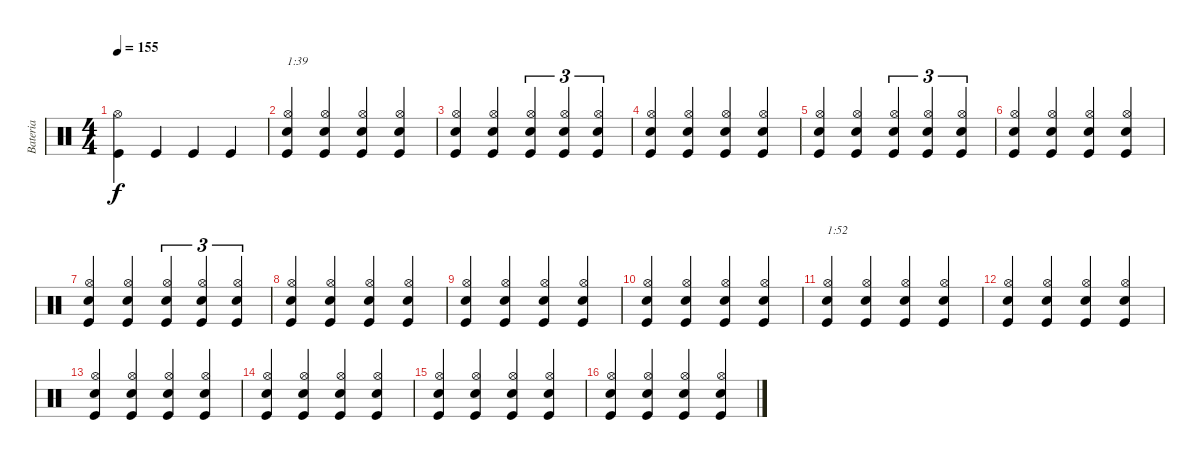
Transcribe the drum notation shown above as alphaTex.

\track ("Bateria" "Bateria") {instrument percussion}
\staff {score}
\articulation defaults
\ts (4 4)
\tempo 155
\clef neutral
\ks c
("Kick (hit)" "Hi-Hat (open)").4{dy f} "Kick (hit)".4 "Kick (hit)".4 "Kick (hit)".4 |
("Kick (hit)" "Snare (hit) 2" "Hi-Hat (open)").4{txt "1:39"} ("Kick (hit)" "Snare (hit) 2" "Hi-Hat (open)").4 ("Kick (hit)" "Snare (hit) 2" "Hi-Hat (open)").4 ("Kick (hit)" "Snare (hit) 2" "Hi-Hat (open)").4 |
("Kick (hit)" "Snare (hit) 2" "Hi-Hat (open)").4 ("Kick (hit)" "Snare (hit) 2" "Hi-Hat (open)").4 ("Kick (hit)" "Snare (hit) 2" "Hi-Hat (open)").4{tu (3 2)} ("Kick (hit)" "Snare (hit) 2" "Hi-Hat (open)").4{tu (3 2)} ("Kick (hit)" "Snare (hit) 2" "Hi-Hat (open)").4{tu (3 2)} |
("Kick (hit)" "Snare (hit) 2" "Hi-Hat (open)").4 ("Kick (hit)" "Snare (hit) 2" "Hi-Hat (open)").4 ("Kick (hit)" "Snare (hit) 2" "Hi-Hat (open)").4 ("Kick (hit)" "Snare (hit) 2" "Hi-Hat (open)").4 |
("Kick (hit)" "Snare (hit) 2" "Hi-Hat (open)").4 ("Kick (hit)" "Snare (hit) 2" "Hi-Hat (open)").4 ("Kick (hit)" "Snare (hit) 2" "Hi-Hat (open)").4{tu (3 2)} ("Kick (hit)" "Snare (hit) 2" "Hi-Hat (open)").4{tu (3 2)} ("Kick (hit)" "Snare (hit) 2" "Hi-Hat (open)").4{tu (3 2)} |
("Kick (hit)" "Snare (hit) 2" "Hi-Hat (open)").4 ("Kick (hit)" "Snare (hit) 2" "Hi-Hat (open)").4 ("Kick (hit)" "Snare (hit) 2" "Hi-Hat (open)").4 ("Kick (hit)" "Snare (hit) 2" "Hi-Hat (open)").4 |
("Kick (hit)" "Snare (hit) 2" "Hi-Hat (open)").4 ("Kick (hit)" "Snare (hit) 2" "Hi-Hat (open)").4 ("Kick (hit)" "Snare (hit) 2" "Hi-Hat (open)").4{tu (3 2)} ("Kick (hit)" "Snare (hit) 2" "Hi-Hat (open)").4{tu (3 2)} ("Kick (hit)" "Snare (hit) 2" "Hi-Hat (open)").4{tu (3 2)} |
("Kick (hit)" "Snare (hit) 2" "Hi-Hat (open)").4 ("Kick (hit)" "Snare (hit) 2" "Hi-Hat (open)").4 ("Kick (hit)" "Snare (hit) 2" "Hi-Hat (open)").4 ("Kick (hit)" "Snare (hit) 2" "Hi-Hat (open)").4 |
("Kick (hit)" "Snare (hit) 2" "Hi-Hat (open)").4 ("Kick (hit)" "Snare (hit) 2" "Hi-Hat (open)").4 ("Kick (hit)" "Snare (hit) 2" "Hi-Hat (open)").4 ("Kick (hit)" "Snare (hit) 2" "Hi-Hat (open)").4 |
("Kick (hit)" "Snare (hit) 2" "Hi-Hat (open)").4 ("Kick (hit)" "Snare (hit) 2" "Hi-Hat (open)").4 ("Kick (hit)" "Snare (hit) 2" "Hi-Hat (open)").4 ("Kick (hit)" "Snare (hit) 2" "Hi-Hat (open)").4 |
("Kick (hit)" "Snare (hit) 2" "Hi-Hat (open)").4{txt "1:52"} ("Kick (hit)" "Snare (hit) 2" "Hi-Hat (open)").4 ("Kick (hit)" "Snare (hit) 2" "Hi-Hat (open)").4 ("Kick (hit)" "Snare (hit) 2" "Hi-Hat (open)").4 |
("Kick (hit)" "Snare (hit) 2" "Hi-Hat (open)").4 ("Kick (hit)" "Snare (hit) 2" "Hi-Hat (open)").4 ("Kick (hit)" "Snare (hit) 2" "Hi-Hat (open)").4 ("Kick (hit)" "Snare (hit) 2" "Hi-Hat (open)").4 |
("Kick (hit)" "Snare (hit) 2" "Hi-Hat (open)").4 ("Kick (hit)" "Snare (hit) 2" "Hi-Hat (open)").4 ("Kick (hit)" "Snare (hit) 2" "Hi-Hat (open)").4 ("Kick (hit)" "Snare (hit) 2" "Hi-Hat (open)").4 |
("Kick (hit)" "Snare (hit) 2" "Hi-Hat (open)").4 ("Kick (hit)" "Snare (hit) 2" "Hi-Hat (open)").4 ("Kick (hit)" "Snare (hit) 2" "Hi-Hat (open)").4 ("Kick (hit)" "Snare (hit) 2" "Hi-Hat (open)").4 |
("Kick (hit)" "Snare (hit) 2" "Hi-Hat (open)").4 ("Kick (hit)" "Snare (hit) 2" "Hi-Hat (open)").4 ("Kick (hit)" "Snare (hit) 2" "Hi-Hat (open)").4 ("Kick (hit)" "Snare (hit) 2" "Hi-Hat (open)").4 |
("Kick (hit)" "Snare (hit) 2" "Hi-Hat (open)").4 ("Kick (hit)" "Snare (hit) 2" "Hi-Hat (open)").4 ("Kick (hit)" "Snare (hit) 2" "Hi-Hat (open)").4 ("Kick (hit)" "Snare (hit) 2" "Hi-Hat (open)").4
